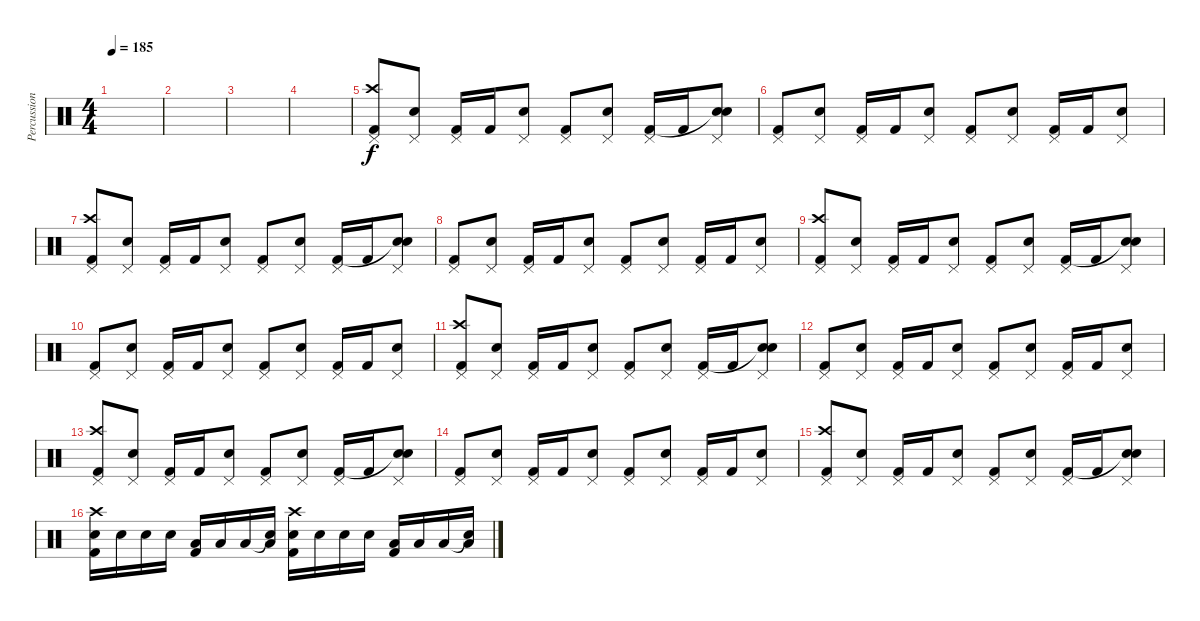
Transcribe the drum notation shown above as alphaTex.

\track ("Percussions" "Percussion") {instrument percussion}
\staff {score}
\articulation defaults
\ts (4 4)
\tempo 185
\clef neutral
\ks c
|
|
|
|
("Pedal Hi-Hat (hit)" "Crash high (hit)" "Kick (hit) 2").8 ("Pedal Hi-Hat (hit)" "Snare (hit) 2").8 ("Pedal Hi-Hat (hit)" "Kick (hit) 2").16 "Kick (hit) 2".16 ("Pedal Hi-Hat (hit)" "Snare (hit) 2").8 ("Pedal Hi-Hat (hit)" "Kick (hit) 2").8 ("Pedal Hi-Hat (hit)" "Snare (hit) 2").8 ("Pedal Hi-Hat (hit)" "Kick (hit) 2").16 "Kick (hit) 2".16 ("Pedal Hi-Hat (hit)" "Snare (hit)"{t} "Snare (hit) 2").8 |
("Pedal Hi-Hat (hit)" "Kick (hit) 2").8 ("Pedal Hi-Hat (hit)" "Snare (hit) 2").8 ("Pedal Hi-Hat (hit)" "Kick (hit) 2").16 "Kick (hit) 2".16 ("Pedal Hi-Hat (hit)" "Snare (hit) 2").8 ("Pedal Hi-Hat (hit)" "Kick (hit) 2").8 ("Pedal Hi-Hat (hit)" "Snare (hit) 2").8 ("Pedal Hi-Hat (hit)" "Kick (hit) 2").16 "Kick (hit) 2".16 ("Pedal Hi-Hat (hit)" "Snare (hit) 2").8 |
("Pedal Hi-Hat (hit)" "Crash high (hit)" "Kick (hit) 2").8 ("Pedal Hi-Hat (hit)" "Snare (hit) 2").8 ("Pedal Hi-Hat (hit)" "Kick (hit) 2").16 "Kick (hit) 2".16 ("Pedal Hi-Hat (hit)" "Snare (hit) 2").8 ("Pedal Hi-Hat (hit)" "Kick (hit) 2").8 ("Pedal Hi-Hat (hit)" "Snare (hit) 2").8 ("Pedal Hi-Hat (hit)" "Kick (hit) 2").16 "Kick (hit) 2".16 ("Pedal Hi-Hat (hit)" "Snare (hit)"{t} "Snare (hit) 2").8 |
("Pedal Hi-Hat (hit)" "Kick (hit) 2").8 ("Pedal Hi-Hat (hit)" "Snare (hit) 2").8 ("Pedal Hi-Hat (hit)" "Kick (hit) 2").16 "Kick (hit) 2".16 ("Pedal Hi-Hat (hit)" "Snare (hit) 2").8 ("Pedal Hi-Hat (hit)" "Kick (hit) 2").8 ("Pedal Hi-Hat (hit)" "Snare (hit) 2").8 ("Pedal Hi-Hat (hit)" "Kick (hit) 2").16 "Kick (hit) 2".16 ("Pedal Hi-Hat (hit)" "Snare (hit) 2").8 |
("Pedal Hi-Hat (hit)" "Crash high (hit)" "Kick (hit) 2").8 ("Pedal Hi-Hat (hit)" "Snare (hit) 2").8 ("Pedal Hi-Hat (hit)" "Kick (hit) 2").16 "Kick (hit) 2".16 ("Pedal Hi-Hat (hit)" "Snare (hit) 2").8 ("Pedal Hi-Hat (hit)" "Kick (hit) 2").8 ("Pedal Hi-Hat (hit)" "Snare (hit) 2").8 ("Pedal Hi-Hat (hit)" "Kick (hit) 2").16 "Kick (hit) 2".16 ("Pedal Hi-Hat (hit)" "Snare (hit)"{t} "Snare (hit) 2").8 |
("Pedal Hi-Hat (hit)" "Kick (hit) 2").8 ("Pedal Hi-Hat (hit)" "Snare (hit) 2").8 ("Pedal Hi-Hat (hit)" "Kick (hit) 2").16 "Kick (hit) 2".16 ("Pedal Hi-Hat (hit)" "Snare (hit) 2").8 ("Pedal Hi-Hat (hit)" "Kick (hit) 2").8 ("Pedal Hi-Hat (hit)" "Snare (hit) 2").8 ("Pedal Hi-Hat (hit)" "Kick (hit) 2").16 "Kick (hit) 2".16 ("Pedal Hi-Hat (hit)" "Snare (hit) 2").8 |
("Pedal Hi-Hat (hit)" "Crash high (hit)" "Kick (hit) 2").8 ("Pedal Hi-Hat (hit)" "Snare (hit) 2").8 ("Pedal Hi-Hat (hit)" "Kick (hit) 2").16 "Kick (hit) 2".16 ("Pedal Hi-Hat (hit)" "Snare (hit) 2").8 ("Pedal Hi-Hat (hit)" "Kick (hit) 2").8 ("Pedal Hi-Hat (hit)" "Snare (hit) 2").8 ("Pedal Hi-Hat (hit)" "Kick (hit) 2").16 "Kick (hit) 2".16 ("Pedal Hi-Hat (hit)" "Snare (hit)"{t} "Snare (hit) 2").8 |
("Pedal Hi-Hat (hit)" "Kick (hit) 2").8 ("Pedal Hi-Hat (hit)" "Snare (hit) 2").8 ("Pedal Hi-Hat (hit)" "Kick (hit) 2").16 "Kick (hit) 2".16 ("Pedal Hi-Hat (hit)" "Snare (hit) 2").8 ("Pedal Hi-Hat (hit)" "Kick (hit) 2").8 ("Pedal Hi-Hat (hit)" "Snare (hit) 2").8 ("Pedal Hi-Hat (hit)" "Kick (hit) 2").16 "Kick (hit) 2".16 ("Pedal Hi-Hat (hit)" "Snare (hit) 2").8 |
("Pedal Hi-Hat (hit)" "Crash high (hit)" "Kick (hit) 2").8 ("Pedal Hi-Hat (hit)" "Snare (hit) 2").8 ("Pedal Hi-Hat (hit)" "Kick (hit) 2").16 "Kick (hit) 2".16 ("Pedal Hi-Hat (hit)" "Snare (hit) 2").8 ("Pedal Hi-Hat (hit)" "Kick (hit) 2").8 ("Pedal Hi-Hat (hit)" "Snare (hit) 2").8 ("Pedal Hi-Hat (hit)" "Kick (hit) 2").16 "Kick (hit) 2".16 ("Pedal Hi-Hat (hit)" "Snare (hit)"{t} "Snare (hit) 2").8 |
("Pedal Hi-Hat (hit)" "Kick (hit) 2").8 ("Pedal Hi-Hat (hit)" "Snare (hit) 2").8 ("Pedal Hi-Hat (hit)" "Kick (hit) 2").16 "Kick (hit) 2".16 ("Pedal Hi-Hat (hit)" "Snare (hit) 2").8 ("Pedal Hi-Hat (hit)" "Kick (hit) 2").8 ("Pedal Hi-Hat (hit)" "Snare (hit) 2").8 ("Pedal Hi-Hat (hit)" "Kick (hit) 2").16 "Kick (hit) 2".16 ("Pedal Hi-Hat (hit)" "Snare (hit) 2").8 |
("Pedal Hi-Hat (hit)" "Crash high (hit)" "Kick (hit) 2").8 ("Pedal Hi-Hat (hit)" "Snare (hit) 2").8 ("Pedal Hi-Hat (hit)" "Kick (hit) 2").16 "Kick (hit) 2".16 ("Pedal Hi-Hat (hit)" "Snare (hit) 2").8 ("Pedal Hi-Hat (hit)" "Kick (hit) 2").8 ("Pedal Hi-Hat (hit)" "Snare (hit) 2").8 ("Pedal Hi-Hat (hit)" "Kick (hit) 2").16 "Kick (hit) 2".16 ("Pedal Hi-Hat (hit)" "Snare (hit)"{t} "Snare (hit) 2").8 |
("Crash high (hit)" "Snare (hit) 2" "Kick (hit) 2").16 "Snare (hit) 2".16 "Snare (hit) 2".16 "Snare (hit) 2".16 ("Low Tom (hit)" "Kick (hit) 2").16 "Low Tom (hit)".16 "Low Tom (hit)".16 ("Snare (hit)"{t} "Low Tom (hit)").16 ("Crash high (hit)" "Snare (hit) 2" "Kick (hit) 2").16 "Snare (hit) 2".16 "Snare (hit) 2".16 "Snare (hit) 2".16 ("Low Floor Tom (hit)" "Kick (hit) 2").16 "Low Floor Tom (hit)".16 "Low Floor Tom (hit)".16 ("Snare (hit)"{t} "Low Floor Tom (hit)").16
